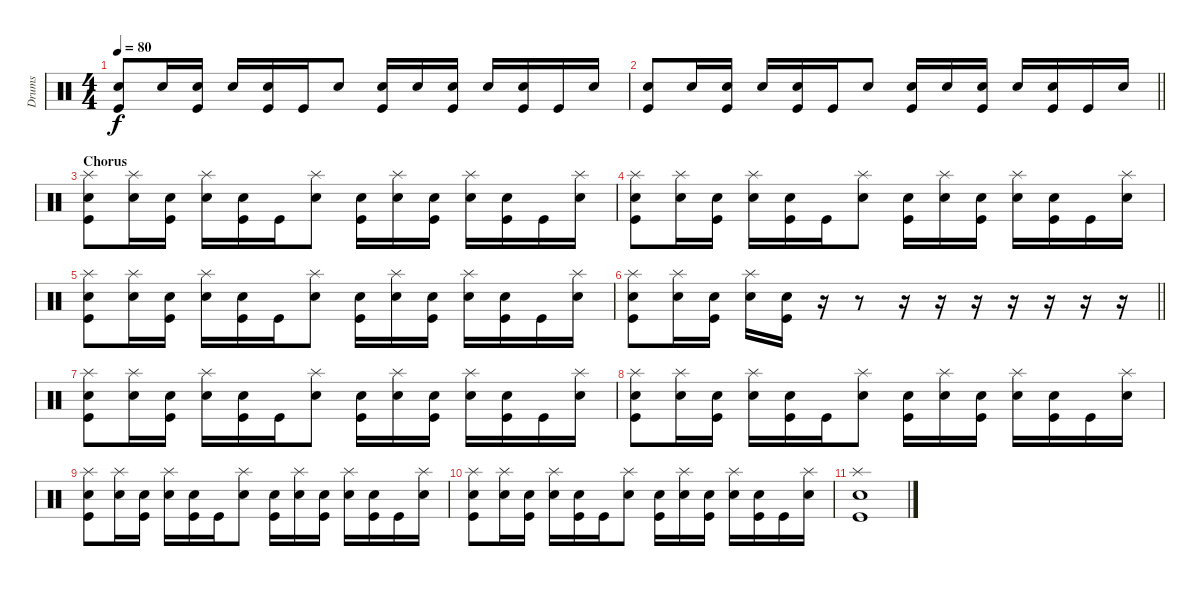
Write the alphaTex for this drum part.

\track ("Drums" "Drums") {instrument percussion}
\staff {score}
\articulation defaults
\ts (4 4)
\tempo 80
\clef neutral
\ks c
("Electric Snare (hit)" "Kick (hit)").8{dy f} "Snare (hit) 2".16 ("Electric Snare (hit)" "Kick (hit)").16 "Snare (hit) 2".16 ("Electric Snare (hit)" "Kick (hit)").16 "Kick (hit)".16 "Snare (hit) 2".8 ("Electric Snare (hit)" "Kick (hit)").16 "Snare (hit) 2".16 ("Electric Snare (hit)" "Kick (hit)").16 "Snare (hit) 2".16 ("Electric Snare (hit)" "Kick (hit)").16 "Kick (hit)".16 "Snare (hit) 2".16 |
\barLineRight lightlight
("Electric Snare (hit)" "Kick (hit)").8 "Snare (hit) 2".16 ("Electric Snare (hit)" "Kick (hit)").16 "Snare (hit) 2".16 ("Electric Snare (hit)" "Kick (hit)").16 "Kick (hit)".16 "Snare (hit) 2".8 ("Electric Snare (hit)" "Kick (hit)").16 "Snare (hit) 2".16 ("Electric Snare (hit)" "Kick (hit)").16 "Snare (hit) 2".16 ("Electric Snare (hit)" "Kick (hit)").16 "Kick (hit)".16 "Snare (hit) 2".16 |
\section ("" "Chorus")
("Splash (hit)" "Electric Snare (hit)" "Kick (hit)").8 ("Splash (hit)" "Snare (hit) 2").16 ("Electric Snare (hit)" "Kick (hit)").16 ("Splash (hit)" "Snare (hit) 2").16 ("Electric Snare (hit)" "Kick (hit)").16 "Kick (hit)".16 ("Splash (hit)" "Snare (hit) 2").8 ("Electric Snare (hit)" "Kick (hit)").16 ("Splash (hit)" "Snare (hit) 2").16 ("Electric Snare (hit)" "Kick (hit)").16 ("Splash (hit)" "Snare (hit) 2").16 ("Electric Snare (hit)" "Kick (hit)").16 "Kick (hit)".16 ("Splash (hit)" "Snare (hit) 2").16 |
("Splash (hit)" "Electric Snare (hit)" "Kick (hit)").8 ("Splash (hit)" "Snare (hit) 2").16 ("Electric Snare (hit)" "Kick (hit)").16 ("Splash (hit)" "Snare (hit) 2").16 ("Electric Snare (hit)" "Kick (hit)").16 "Kick (hit)".16 ("Splash (hit)" "Snare (hit) 2").8 ("Electric Snare (hit)" "Kick (hit)").16 ("Splash (hit)" "Snare (hit) 2").16 ("Electric Snare (hit)" "Kick (hit)").16 ("Splash (hit)" "Snare (hit) 2").16 ("Electric Snare (hit)" "Kick (hit)").16 "Kick (hit)".16 ("Splash (hit)" "Snare (hit) 2").16 |
("Splash (hit)" "Electric Snare (hit)" "Kick (hit)").8 ("Splash (hit)" "Snare (hit) 2").16 ("Electric Snare (hit)" "Kick (hit)").16 ("Splash (hit)" "Snare (hit) 2").16 ("Electric Snare (hit)" "Kick (hit)").16 "Kick (hit)".16 ("Splash (hit)" "Snare (hit) 2").8 ("Electric Snare (hit)" "Kick (hit)").16 ("Splash (hit)" "Snare (hit) 2").16 ("Electric Snare (hit)" "Kick (hit)").16 ("Splash (hit)" "Snare (hit) 2").16 ("Electric Snare (hit)" "Kick (hit)").16 "Kick (hit)".16 ("Splash (hit)" "Snare (hit) 2").16 |
\barLineRight lightlight
("Splash (hit)" "Electric Snare (hit)" "Kick (hit)").8 ("Splash (hit)" "Snare (hit) 2").16 ("Electric Snare (hit)" "Kick (hit)").16 ("Splash (hit)" "Snare (hit) 2").16 ("Electric Snare (hit)" "Kick (hit)").16 r.16 r.8 r.16 r.16 r.16 r.16 r.16 r.16 r.16 |
("Splash (hit)" "Electric Snare (hit)" "Kick (hit)").8 ("Splash (hit)" "Snare (hit) 2").16 ("Electric Snare (hit)" "Kick (hit)").16 ("Splash (hit)" "Snare (hit) 2").16 ("Electric Snare (hit)" "Kick (hit)").16 "Kick (hit)".16 ("Splash (hit)" "Snare (hit) 2").8 ("Electric Snare (hit)" "Kick (hit)").16 ("Splash (hit)" "Snare (hit) 2").16 ("Electric Snare (hit)" "Kick (hit)").16 ("Splash (hit)" "Snare (hit) 2").16 ("Electric Snare (hit)" "Kick (hit)").16 "Kick (hit)".16 ("Splash (hit)" "Snare (hit) 2").16 |
("Splash (hit)" "Electric Snare (hit)" "Kick (hit)").8 ("Splash (hit)" "Snare (hit) 2").16 ("Electric Snare (hit)" "Kick (hit)").16 ("Splash (hit)" "Snare (hit) 2").16 ("Electric Snare (hit)" "Kick (hit)").16 "Kick (hit)".16 ("Splash (hit)" "Snare (hit) 2").8 ("Electric Snare (hit)" "Kick (hit)").16 ("Splash (hit)" "Snare (hit) 2").16 ("Electric Snare (hit)" "Kick (hit)").16 ("Splash (hit)" "Snare (hit) 2").16 ("Electric Snare (hit)" "Kick (hit)").16 "Kick (hit)".16 ("Splash (hit)" "Snare (hit) 2").16 |
("Splash (hit)" "Electric Snare (hit)" "Kick (hit)").8 ("Splash (hit)" "Snare (hit) 2").16 ("Electric Snare (hit)" "Kick (hit)").16 ("Splash (hit)" "Snare (hit) 2").16 ("Electric Snare (hit)" "Kick (hit)").16 "Kick (hit)".16 ("Splash (hit)" "Snare (hit) 2").8 ("Electric Snare (hit)" "Kick (hit)").16 ("Splash (hit)" "Snare (hit) 2").16 ("Electric Snare (hit)" "Kick (hit)").16 ("Splash (hit)" "Snare (hit) 2").16 ("Electric Snare (hit)" "Kick (hit)").16 "Kick (hit)".16 ("Splash (hit)" "Snare (hit) 2").16 |
("Splash (hit)" "Electric Snare (hit)" "Kick (hit)").8 ("Splash (hit)" "Snare (hit) 2").16 ("Electric Snare (hit)" "Kick (hit)").16 ("Splash (hit)" "Snare (hit) 2").16 ("Electric Snare (hit)" "Kick (hit)").16 "Kick (hit)".16 ("Splash (hit)" "Snare (hit) 2").8 ("Electric Snare (hit)" "Kick (hit)").16 ("Splash (hit)" "Snare (hit) 2").16 ("Electric Snare (hit)" "Kick (hit)").16 ("Splash (hit)" "Snare (hit) 2").16 ("Electric Snare (hit)" "Kick (hit)").16 "Kick (hit)".16 ("Splash (hit)" "Snare (hit) 2").16 |
("Splash (hit)" "Electric Snare (hit)" "Kick (hit)").1
